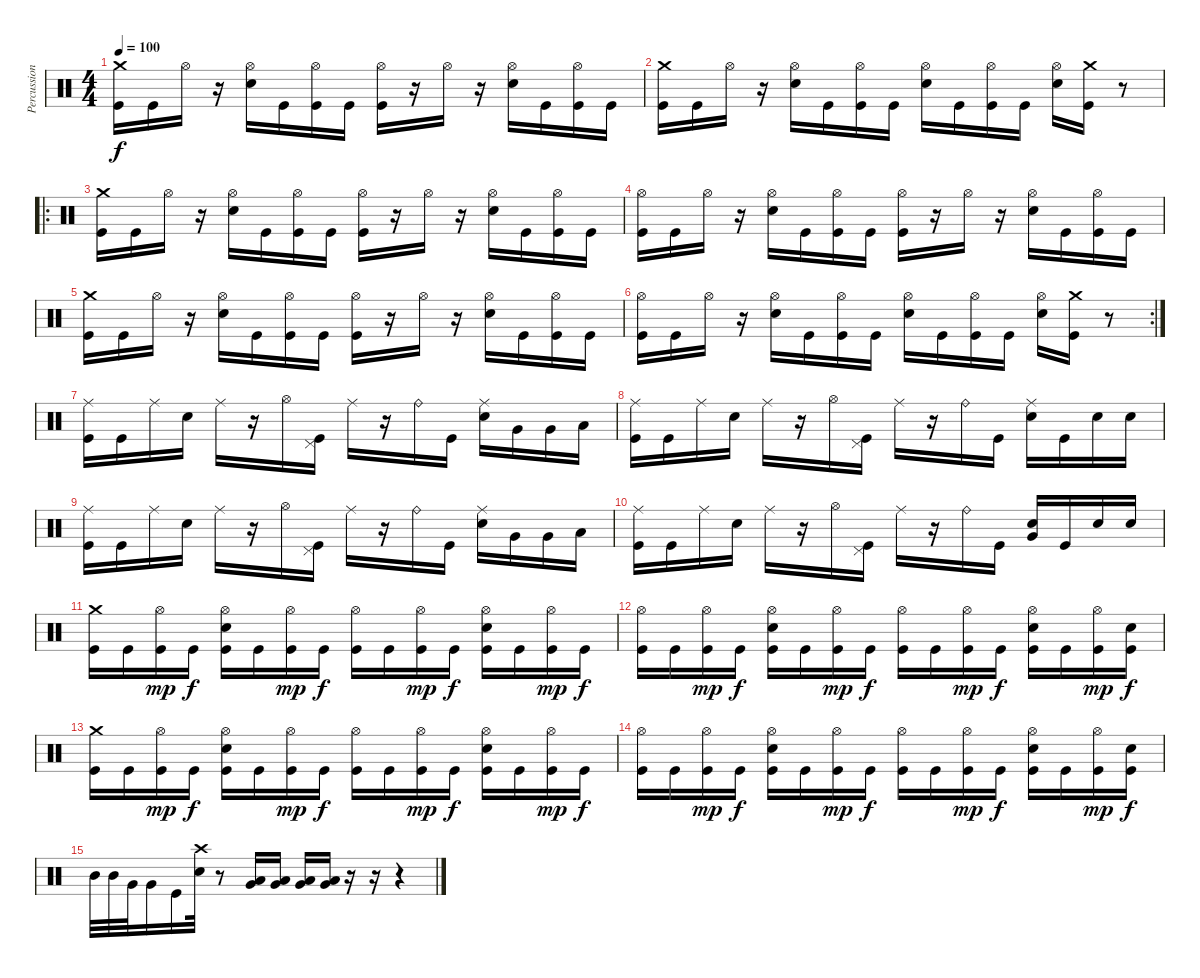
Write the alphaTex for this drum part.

\track ("Percussion" "Percussion") {instrument percussion}
\staff {score}
\articulation defaults
\ts (4 4)
\tempo 100
\clef neutral
\ks c
("Crash medium (hit)" "Kick (hit)").16{dy f} "Kick (hit)".16 "Hi-Hat (open)".16 r.16 ("Hi-Hat (open)" "Electric Snare (hit)").16 "Kick (hit)".16 ("Hi-Hat (open)" "Kick (hit)").16 "Kick (hit)".16 ("Hi-Hat (open)" "Kick (hit)").16 r.16 "Hi-Hat (open)".16 r.16 ("Hi-Hat (open)" "Electric Snare (hit)").16 "Kick (hit)".16 ("Hi-Hat (open)" "Kick (hit)").16 "Kick (hit)".16 |
("Crash medium (hit)" "Kick (hit)").16 "Kick (hit)".16 "Hi-Hat (open)".16 r.16 ("Hi-Hat (open)" "Electric Snare (hit)").16 "Kick (hit)".16 ("Hi-Hat (open)" "Kick (hit)").16 "Kick (hit)".16 ("Hi-Hat (open)" "Electric Snare (hit)").16 "Kick (hit)".16 ("Hi-Hat (open)" "Kick (hit)").16 "Kick (hit)".16 ("Hi-Hat (open)" "Electric Snare (hit)").16 ("Crash medium (hit)" "Kick (hit)").16 r.8 |
\ro
("Crash medium (hit)" "Kick (hit)").16 "Kick (hit)".16 "Hi-Hat (open)".16 r.16 ("Hi-Hat (open)" "Electric Snare (hit)").16 "Kick (hit)".16 ("Hi-Hat (open)" "Kick (hit)").16 "Kick (hit)".16 ("Hi-Hat (open)" "Kick (hit)").16 r.16 "Hi-Hat (open)".16 r.16 ("Hi-Hat (open)" "Electric Snare (hit)").16 "Kick (hit)".16 ("Hi-Hat (open)" "Kick (hit)").16 "Kick (hit)".16 |
("Hi-Hat (open)" "Kick (hit)").16 "Kick (hit)".16 "Hi-Hat (open)".16 r.16 ("Hi-Hat (open)" "Electric Snare (hit)").16 "Kick (hit)".16 ("Hi-Hat (open)" "Kick (hit)").16 "Kick (hit)".16 ("Hi-Hat (open)" "Kick (hit)").16 r.16 "Hi-Hat (open)".16 r.16 ("Hi-Hat (open)" "Electric Snare (hit)").16 "Kick (hit)".16 ("Hi-Hat (open)" "Kick (hit)").16 "Kick (hit)".16 |
("Crash medium (hit)" "Kick (hit)").16 "Kick (hit)".16 "Hi-Hat (open)".16 r.16 ("Hi-Hat (open)" "Electric Snare (hit)").16 "Kick (hit)".16 ("Hi-Hat (open)" "Kick (hit)").16 "Kick (hit)".16 ("Hi-Hat (open)" "Kick (hit)").16 r.16 "Hi-Hat (open)".16 r.16 ("Hi-Hat (open)" "Electric Snare (hit)").16 "Kick (hit)".16 ("Hi-Hat (open)" "Kick (hit)").16 "Kick (hit)".16 |
\rc 2
("Hi-Hat (open)" "Kick (hit)").16 "Kick (hit)".16 "Hi-Hat (open)".16 r.16 ("Hi-Hat (open)" "Electric Snare (hit)").16 "Kick (hit)".16 ("Hi-Hat (open)" "Kick (hit)").16 "Kick (hit)".16 ("Hi-Hat (open)" "Electric Snare (hit)").16 "Kick (hit)".16 ("Hi-Hat (open)" "Kick (hit)").16 "Kick (hit)".16 ("Hi-Hat (open)" "Electric Snare (hit)").16 ("Crash medium (hit)" "Kick (hit)").16 r.8 |
("Ride (middle)" "Kick (hit)").16 "Kick (hit)".16 "Ride (middle)".16 "Electric Snare (hit)".16 "Ride (middle)".16 r.16 "Hi-Hat (open)".16 ("Pedal Hi-Hat (hit)" "Kick (hit)").16 "Ride (middle)".16 r.16 "Ride (bell)".16 "Kick (hit)".16 ("Ride (middle)" "Electric Snare (hit)").16 "Very Low Tom (hit)".16 "Very Low Tom (hit)".16 "Low Floor Tom (hit)".16 |
("Ride (middle)" "Kick (hit)").16 "Kick (hit)".16 "Ride (middle)".16 "Electric Snare (hit)".16 "Ride (middle)".16 r.16 "Hi-Hat (open)".16 ("Pedal Hi-Hat (hit)" "Kick (hit)").16 "Ride (middle)".16 r.16 "Ride (bell)".16 "Kick (hit)".16 ("Ride (middle)" "Electric Snare (hit)").16 "Kick (hit)".16 "Electric Snare (hit)".16 "Electric Snare (hit)".16 |
("Ride (middle)" "Kick (hit)").16 "Kick (hit)".16 "Ride (middle)".16 "Electric Snare (hit)".16 "Ride (middle)".16 r.16 "Hi-Hat (open)".16 ("Pedal Hi-Hat (hit)" "Kick (hit)").16 "Ride (middle)".16 r.16 "Ride (bell)".16 "Kick (hit)".16 ("Ride (middle)" "Electric Snare (hit)").16 "Very Low Tom (hit)".16 "Very Low Tom (hit)".16 "Low Floor Tom (hit)".16 |
("Ride (middle)" "Kick (hit)").16 "Kick (hit)".16 "Ride (middle)".16 "Electric Snare (hit)".16 "Ride (middle)".16 r.16 "Hi-Hat (open)".16 ("Pedal Hi-Hat (hit)" "Kick (hit)").16 "Ride (middle)".16 r.16 "Ride (bell)".16 "Kick (hit)".16 ("Electric Snare (hit)" "Very Low Tom (hit)").16 "Kick (hit)".16 "Electric Snare (hit)".16 "Electric Snare (hit)".16 |
("Crash medium (hit)" "Kick (hit)").16 "Kick (hit)".16 ("Hi-Hat (open)" "Kick (hit)").16{dy mp} "Kick (hit)".16{dy f} ("Hi-Hat (open)" "Electric Snare (hit)" "Kick (hit)").16 "Kick (hit)".16 ("Hi-Hat (open)" "Kick (hit)").16{dy mp} "Kick (hit)".16{dy f} ("Hi-Hat (open)" "Kick (hit)").16 "Kick (hit)".16 ("Hi-Hat (open)" "Kick (hit)").16{dy mp} "Kick (hit)".16{dy f} ("Hi-Hat (open)" "Electric Snare (hit)" "Kick (hit)").16 "Kick (hit)".16 ("Hi-Hat (open)" "Kick (hit)").16{dy mp} "Kick (hit)".16{dy f} |
("Hi-Hat (open)" "Kick (hit)").16 "Kick (hit)".16 ("Hi-Hat (open)" "Kick (hit)").16{dy mp} "Kick (hit)".16{dy f} ("Hi-Hat (open)" "Electric Snare (hit)" "Kick (hit)").16 "Kick (hit)".16 ("Hi-Hat (open)" "Kick (hit)").16{dy mp} "Kick (hit)".16{dy f} ("Hi-Hat (open)" "Kick (hit)").16 "Kick (hit)".16 ("Hi-Hat (open)" "Kick (hit)").16{dy mp} "Kick (hit)".16{dy f} ("Hi-Hat (open)" "Electric Snare (hit)" "Kick (hit)").16 "Kick (hit)".16 ("Hi-Hat (open)" "Kick (hit)").16{dy mp} ("Electric Snare (hit)" "Kick (hit)").16{dy f} |
("Crash medium (hit)" "Kick (hit)").16 "Kick (hit)".16 ("Hi-Hat (open)" "Kick (hit)").16{dy mp} "Kick (hit)".16{dy f} ("Hi-Hat (open)" "Electric Snare (hit)" "Kick (hit)").16 "Kick (hit)".16 ("Hi-Hat (open)" "Kick (hit)").16{dy mp} "Kick (hit)".16{dy f} ("Hi-Hat (open)" "Kick (hit)").16 "Kick (hit)".16 ("Hi-Hat (open)" "Kick (hit)").16{dy mp} "Kick (hit)".16{dy f} ("Hi-Hat (open)" "Electric Snare (hit)" "Kick (hit)").16 "Kick (hit)".16 ("Hi-Hat (open)" "Kick (hit)").16{dy mp} "Kick (hit)".16{dy f} |
("Hi-Hat (open)" "Kick (hit)").16 "Kick (hit)".16 ("Hi-Hat (open)" "Kick (hit)").16{dy mp} "Kick (hit)".16{dy f} ("Hi-Hat (open)" "Electric Snare (hit)" "Kick (hit)").16 "Kick (hit)".16 ("Hi-Hat (open)" "Kick (hit)").16{dy mp} "Kick (hit)".16{dy f} ("Hi-Hat (open)" "Kick (hit)").16 "Kick (hit)".16 ("Hi-Hat (open)" "Kick (hit)").16{dy mp} "Kick (hit)".16{dy f} ("Hi-Hat (open)" "Electric Snare (hit)" "Kick (hit)").16 "Kick (hit)".16 ("Hi-Hat (open)" "Kick (hit)").16{dy mp} ("Electric Snare (hit)" "Kick (hit)").16{dy f} |
"Mid Tom (hit)".32 "Mid Tom (hit)".32 "Very Low Tom (hit)".32 "Very Low Tom (hit)".16 "Kick (hit)".16 ("Crash high (hit)" "Electric Snare (hit)").32 r.8 ("Very Low Tom (hit)" "Low Floor Tom (hit)").16 ("Very Low Tom (hit)" "Low Floor Tom (hit)").16 ("Very Low Tom (hit)" "Low Floor Tom (hit)").16 ("Very Low Tom (hit)" "Low Floor Tom (hit)").16 r.16 r.16 r.4
